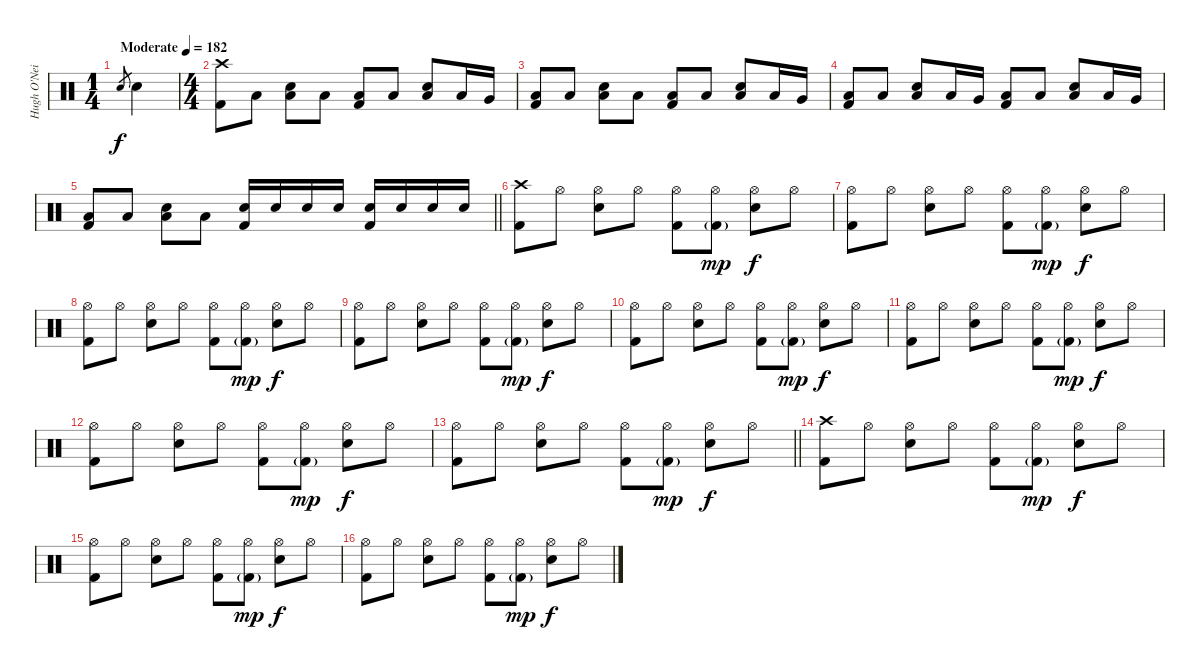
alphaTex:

\track ("Hugh O'Neil" "Hugh O'Nei") {instrument percussion}
\staff {score}
\articulation defaults
\ts (1 4)
\tempo (182 "Moderate")
\clef neutral
\ks c "Electric Snare (hit)".8{gr dy f} "Electric Snare (hit)".4
|
\ts (4 4)
("Crash high (hit)" "Kick (hit) 2").8 "Low Floor Tom (hit)".8 ("Electric Snare (hit)" "Low Floor Tom (hit)").8 "Low Floor Tom (hit)".8 ("Low Floor Tom (hit)" "Kick (hit) 2").8 "Low Floor Tom (hit)".8 ("Electric Snare (hit)" "Low Floor Tom (hit)").8 "Low Floor Tom (hit)".16 "Very Low Tom (hit)".16 |
("Low Floor Tom (hit)" "Kick (hit) 2").8 "Low Floor Tom (hit)".8 ("Electric Snare (hit)" "Low Floor Tom (hit)").8 "Low Floor Tom (hit)".8 ("Low Floor Tom (hit)" "Kick (hit) 2").8 "Low Floor Tom (hit)".8 ("Electric Snare (hit)" "Low Floor Tom (hit)").8 "Low Floor Tom (hit)".16 "Very Low Tom (hit)".16 |
("Low Floor Tom (hit)" "Kick (hit) 2").8 "Low Floor Tom (hit)".8 ("Electric Snare (hit)" "Low Floor Tom (hit)").8 "Low Floor Tom (hit)".16 "Very Low Tom (hit)".16 ("Low Floor Tom (hit)" "Kick (hit) 2").8 "Low Floor Tom (hit)".8 ("Electric Snare (hit)" "Low Floor Tom (hit)").8 "Low Floor Tom (hit)".16 "Very Low Tom (hit)".16 |
\barLineRight lightlight
("Low Floor Tom (hit)" "Kick (hit) 2").8 "Low Floor Tom (hit)".8 ("Electric Snare (hit)" "Low Floor Tom (hit)").8 "Low Floor Tom (hit)".8 ("Electric Snare (hit)" "Kick (hit) 2").16 "Electric Snare (hit)".16 "Electric Snare (hit)".16 "Electric Snare (hit)".16 ("Electric Snare (hit)" "Kick (hit) 2").16 "Electric Snare (hit)".16 "Electric Snare (hit)".16 "Electric Snare (hit)".16 |
\section ("" "")
("Crash high (hit)" "Kick (hit) 2").8 "Hi-Hat (open)".8 ("Hi-Hat (open)" "Electric Snare (hit)").8 "Hi-Hat (open)".8 ("Hi-Hat (open)" "Kick (hit) 2").8 ("Hi-Hat (open)" "Kick (hit) 2"{g}).8{dy mp} ("Hi-Hat (open)" "Electric Snare (hit)").8{dy f} "Hi-Hat (open)".8 |
("Hi-Hat (open)" "Kick (hit) 2").8 "Hi-Hat (open)".8 ("Hi-Hat (open)" "Electric Snare (hit)").8 "Hi-Hat (open)".8 ("Hi-Hat (open)" "Kick (hit) 2").8 ("Hi-Hat (open)" "Kick (hit) 2"{g}).8{dy mp} ("Hi-Hat (open)" "Electric Snare (hit)").8{dy f} "Hi-Hat (open)".8 |
("Hi-Hat (open)" "Kick (hit) 2").8 "Hi-Hat (open)".8 ("Hi-Hat (open)" "Electric Snare (hit)").8 "Hi-Hat (open)".8 ("Hi-Hat (open)" "Kick (hit) 2").8 ("Hi-Hat (open)" "Kick (hit) 2"{g}).8{dy mp} ("Hi-Hat (open)" "Electric Snare (hit)").8{dy f} "Hi-Hat (open)".8 |
("Hi-Hat (open)" "Kick (hit) 2").8 "Hi-Hat (open)".8 ("Hi-Hat (open)" "Electric Snare (hit)").8 "Hi-Hat (open)".8 ("Hi-Hat (open)" "Kick (hit) 2").8 ("Hi-Hat (open)" "Kick (hit) 2"{g}).8{dy mp} ("Hi-Hat (open)" "Electric Snare (hit)").8{dy f} "Hi-Hat (open)".8 |
("Hi-Hat (open)" "Kick (hit) 2").8 "Hi-Hat (open)".8 ("Hi-Hat (open)" "Electric Snare (hit)").8 "Hi-Hat (open)".8 ("Hi-Hat (open)" "Kick (hit) 2").8 ("Hi-Hat (open)" "Kick (hit) 2"{g}).8{dy mp} ("Hi-Hat (open)" "Electric Snare (hit)").8{dy f} "Hi-Hat (open)".8 |
("Hi-Hat (open)" "Kick (hit) 2").8 "Hi-Hat (open)".8 ("Hi-Hat (open)" "Electric Snare (hit)").8 "Hi-Hat (open)".8 ("Hi-Hat (open)" "Kick (hit) 2").8 ("Hi-Hat (open)" "Kick (hit) 2"{g}).8{dy mp} ("Hi-Hat (open)" "Electric Snare (hit)").8{dy f} "Hi-Hat (open)".8 |
("Hi-Hat (open)" "Kick (hit) 2").8 "Hi-Hat (open)".8 ("Hi-Hat (open)" "Electric Snare (hit)").8 "Hi-Hat (open)".8 ("Hi-Hat (open)" "Kick (hit) 2").8 ("Hi-Hat (open)" "Kick (hit) 2"{g}).8{dy mp} ("Hi-Hat (open)" "Electric Snare (hit)").8{dy f} "Hi-Hat (open)".8 |
\barLineRight lightlight
("Hi-Hat (open)" "Kick (hit) 2").8 "Hi-Hat (open)".8 ("Hi-Hat (open)" "Electric Snare (hit)").8 "Hi-Hat (open)".8 ("Hi-Hat (open)" "Kick (hit) 2").8 ("Hi-Hat (open)" "Kick (hit) 2"{g}).8{dy mp} ("Hi-Hat (open)" "Electric Snare (hit)").8{dy f} "Hi-Hat (open)".8 |
\section ("" "")
("Crash high (hit)" "Kick (hit) 2").8 "Hi-Hat (open)".8 ("Hi-Hat (open)" "Electric Snare (hit)").8 "Hi-Hat (open)".8 ("Hi-Hat (open)" "Kick (hit) 2").8 ("Hi-Hat (open)" "Kick (hit) 2"{g}).8{dy mp} ("Hi-Hat (open)" "Electric Snare (hit)").8{dy f} "Hi-Hat (open)".8 |
("Hi-Hat (open)" "Kick (hit) 2").8 "Hi-Hat (open)".8 ("Hi-Hat (open)" "Electric Snare (hit)").8 "Hi-Hat (open)".8 ("Hi-Hat (open)" "Kick (hit) 2").8 ("Hi-Hat (open)" "Kick (hit) 2"{g}).8{dy mp} ("Hi-Hat (open)" "Electric Snare (hit)").8{dy f} "Hi-Hat (open)".8 |
("Hi-Hat (open)" "Kick (hit) 2").8 "Hi-Hat (open)".8 ("Hi-Hat (open)" "Electric Snare (hit)").8 "Hi-Hat (open)".8 ("Hi-Hat (open)" "Kick (hit) 2").8 ("Hi-Hat (open)" "Kick (hit) 2"{g}).8{dy mp} ("Hi-Hat (open)" "Electric Snare (hit)").8{dy f} "Hi-Hat (open)".8
